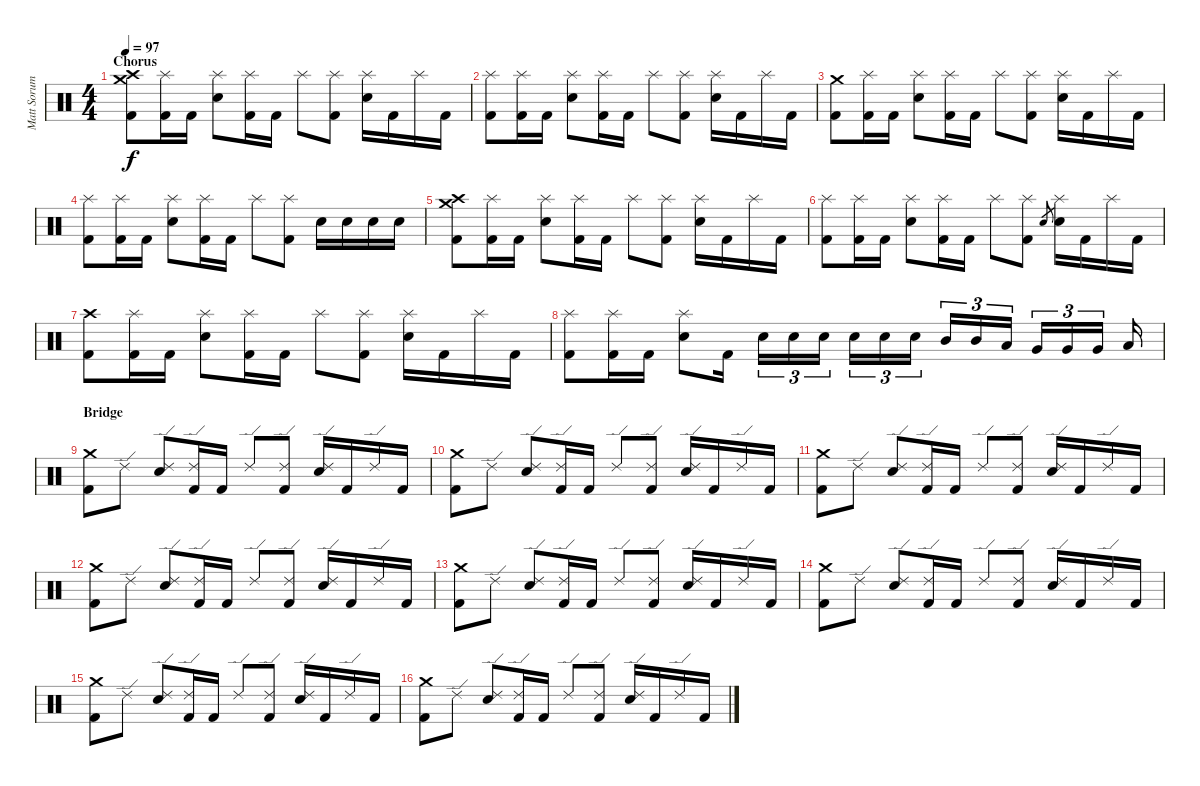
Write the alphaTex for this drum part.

\track ("Matt Sorum" "Matt Sorum") {instrument percussion}
\staff {score}
\articulation defaults
\ts (4 4)
\section ("" "Chorus")
\tempo 97
\clef neutral
\ks c
("Crash medium (hit)" "Crash high (hit)" "Kick (hit) 2").8{dy f} ("Splash (hit)" "Kick (hit) 2").16 "Kick (hit) 2".16 ("Splash (hit)" "Electric Snare (hit)").8 ("Splash (hit)" "Kick (hit) 2").16 "Kick (hit) 2".16 "Splash (hit)".8 ("Splash (hit)" "Kick (hit) 2").8 ("Splash (hit)" "Electric Snare (hit)").16 "Kick (hit) 2".16 "Splash (hit)".16 "Kick (hit) 2".16 |
("Splash (hit)" "Kick (hit) 2").8 ("Splash (hit)" "Kick (hit) 2").16 "Kick (hit) 2".16 ("Splash (hit)" "Electric Snare (hit)").8 ("Splash (hit)" "Kick (hit) 2").16 "Kick (hit) 2".16 "Splash (hit)".8 ("Splash (hit)" "Kick (hit) 2").8 ("Splash (hit)" "Electric Snare (hit)").16 "Kick (hit) 2".16 "Splash (hit)".16 "Kick (hit) 2".16 |
("Crash medium (hit)" "Kick (hit) 2").8 ("Splash (hit)" "Kick (hit) 2").16 "Kick (hit) 2".16 ("Splash (hit)" "Electric Snare (hit)").8 ("Splash (hit)" "Kick (hit) 2").16 "Kick (hit) 2".16 "Splash (hit)".8 ("Splash (hit)" "Kick (hit) 2").8 ("Splash (hit)" "Electric Snare (hit)").16 "Kick (hit) 2".16 "Splash (hit)".16 "Kick (hit) 2".16 |
("Splash (hit)" "Kick (hit) 2").8 ("Splash (hit)" "Kick (hit) 2").16 "Kick (hit) 2".16 ("Splash (hit)" "Electric Snare (hit)").8 ("Splash (hit)" "Kick (hit) 2").16 "Kick (hit) 2".16 "Splash (hit)".8 ("Splash (hit)" "Kick (hit) 2").8 "Electric Snare (hit)".16 "Electric Snare (hit)".16 "Electric Snare (hit)".16 "Electric Snare (hit)".16 |
("Crash medium (hit)" "Crash high (hit)" "Kick (hit) 2").8 ("Splash (hit)" "Kick (hit) 2").16 "Kick (hit) 2".16 ("Splash (hit)" "Electric Snare (hit)").8 ("Splash (hit)" "Kick (hit) 2").16 "Kick (hit) 2".16 "Splash (hit)".8 ("Splash (hit)" "Kick (hit) 2").8 ("Splash (hit)" "Electric Snare (hit)").16 "Kick (hit) 2".16 "Splash (hit)".16 "Kick (hit) 2".16 |
("Splash (hit)" "Kick (hit) 2").8 ("Splash (hit)" "Kick (hit) 2").16 "Kick (hit) 2".16 ("Splash (hit)" "Electric Snare (hit)").8 ("Splash (hit)" "Kick (hit) 2").16 "Kick (hit) 2".16 "Splash (hit)".8 ("Splash (hit)" "Kick (hit) 2").8 "Electric Snare (hit)".8{gr} ("Splash (hit)" "Electric Snare (hit)").16 "Kick (hit) 2".16 "Splash (hit)".16 "Kick (hit) 2".16 |
("Crash high (hit)" "Kick (hit) 2").8 ("Splash (hit)" "Kick (hit) 2").16 "Kick (hit) 2".16 ("Splash (hit)" "Electric Snare (hit)").8 ("Splash (hit)" "Kick (hit) 2").16 "Kick (hit) 2".16 "Splash (hit)".8 ("Splash (hit)" "Kick (hit) 2").8 ("Splash (hit)" "Electric Snare (hit)").16 "Kick (hit) 2".16 "Splash (hit)".16 "Kick (hit) 2".16 |
("Splash (hit)" "Kick (hit) 2").8 ("Splash (hit)" "Kick (hit) 2").16 "Kick (hit) 2".16 ("Splash (hit)" "Electric Snare (hit)").8 "Kick (hit) 2".16 "Electric Snare (hit)".16{tu (3 2)} "Electric Snare (hit)".16{tu (3 2)} "Electric Snare (hit)".16{tu (3 2)} "Electric Snare (hit)".16{tu (3 2)} "Electric Snare (hit)".16{tu (3 2)} "Electric Snare (hit)".16{tu (3 2)} "Mid Tom (hit)".16{tu (3 2)} "Mid Tom (hit)".16{tu (3 2)} "Low Tom (hit)".16{tu (3 2)} "Very Low Tom (hit)".16{tu (3 2)} "Very Low Tom (hit)".16{tu (3 2)} "Very Low Tom (hit)".16{tu (3 2)} "Low Floor Tom (hit)".16 |
\section ("" "Bridge")
("Crash medium (hit)" "Kick (hit) 2").8 "Ride (edge) 2".8 ("Ride (edge) 2" "Electric Snare (hit)").8 ("Ride (edge) 2" "Kick (hit) 2").16 "Kick (hit) 2".16 "Ride (edge) 2".8 ("Ride (edge) 2" "Kick (hit) 2").8 ("Ride (edge) 2" "Electric Snare (hit)").16 "Kick (hit) 2".16 "Ride (edge) 2".16 "Kick (hit) 2".16 |
("Crash medium (hit)" "Kick (hit) 2").8 "Ride (edge) 2".8 ("Ride (edge) 2" "Electric Snare (hit)").8 ("Ride (edge) 2" "Kick (hit) 2").16 "Kick (hit) 2".16 "Ride (edge) 2".8 ("Ride (edge) 2" "Kick (hit) 2").8 ("Ride (edge) 2" "Electric Snare (hit)").16 "Kick (hit) 2".16 "Ride (edge) 2".16 "Kick (hit) 2".16 |
("Crash medium (hit)" "Kick (hit) 2").8 "Ride (edge) 2".8 ("Ride (edge) 2" "Electric Snare (hit)").8 ("Ride (edge) 2" "Kick (hit) 2").16 "Kick (hit) 2".16 "Ride (edge) 2".8 ("Ride (edge) 2" "Kick (hit) 2").8 ("Ride (edge) 2" "Electric Snare (hit)").16 "Kick (hit) 2".16 "Ride (edge) 2".16 "Kick (hit) 2".16 |
("Crash medium (hit)" "Kick (hit) 2").8 "Ride (edge) 2".8 ("Ride (edge) 2" "Electric Snare (hit)").8 ("Ride (edge) 2" "Kick (hit) 2").16 "Kick (hit) 2".16 "Ride (edge) 2".8 ("Ride (edge) 2" "Kick (hit) 2").8 ("Ride (edge) 2" "Electric Snare (hit)").16 "Kick (hit) 2".16 "Ride (edge) 2".16 "Kick (hit) 2".16 |
("Crash medium (hit)" "Kick (hit) 2").8 "Ride (edge) 2".8 ("Ride (edge) 2" "Electric Snare (hit)").8 ("Ride (edge) 2" "Kick (hit) 2").16 "Kick (hit) 2".16 "Ride (edge) 2".8 ("Ride (edge) 2" "Kick (hit) 2").8 ("Ride (edge) 2" "Electric Snare (hit)").16 "Kick (hit) 2".16 "Ride (edge) 2".16 "Kick (hit) 2".16 |
("Crash medium (hit)" "Kick (hit) 2").8 "Ride (edge) 2".8 ("Ride (edge) 2" "Electric Snare (hit)").8 ("Ride (edge) 2" "Kick (hit) 2").16 "Kick (hit) 2".16 "Ride (edge) 2".8 ("Ride (edge) 2" "Kick (hit) 2").8 ("Ride (edge) 2" "Electric Snare (hit)").16 "Kick (hit) 2".16 "Ride (edge) 2".16 "Kick (hit) 2".16 |
("Crash medium (hit)" "Kick (hit) 2").8 "Ride (edge) 2".8 ("Ride (edge) 2" "Electric Snare (hit)").8 ("Ride (edge) 2" "Kick (hit) 2").16 "Kick (hit) 2".16 "Ride (edge) 2".8 ("Ride (edge) 2" "Kick (hit) 2").8 ("Ride (edge) 2" "Electric Snare (hit)").16 "Kick (hit) 2".16 "Ride (edge) 2".16 "Kick (hit) 2".16 |
("Crash medium (hit)" "Kick (hit) 2").8 "Ride (edge) 2".8 ("Ride (edge) 2" "Electric Snare (hit)").8 ("Ride (edge) 2" "Kick (hit) 2").16 "Kick (hit) 2".16 "Ride (edge) 2".8 ("Ride (edge) 2" "Kick (hit) 2").8 ("Ride (edge) 2" "Electric Snare (hit)").16 "Kick (hit) 2".16 "Ride (edge) 2".16 "Kick (hit) 2".16
